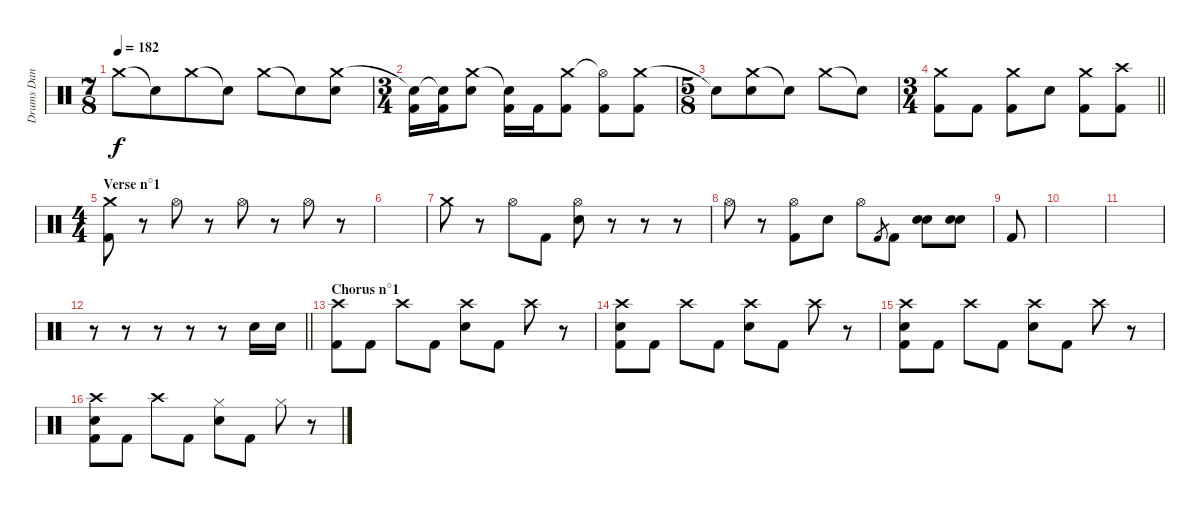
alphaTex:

\track ("Drums Dan Searle" "Drums Dan ") {instrument percussion}
\staff {score}
\articulation defaults
\ts (7 8)
\tempo 182
\clef neutral
\ks c "Crash medium (hit)".8{dy f} "Snare (hit)"{t}.8 "Crash medium (hit)".8 "Snare (hit)"{t}.8 "Crash medium (hit)".8 "Snare (hit)"{t}.8
("Crash medium (hit)" "Electric Snare (hit)").8 |
\ts (3 4)
("Snare (hit)"{t} "Kick (hit) 2").16 ("Snare (hit)"{t} "Kick (hit) 2").16 ("Crash medium (hit)" "Electric Snare (hit)").8 ("Snare (hit)"{t} "Kick (hit) 2").16 "Kick (hit) 2".16 ("Crash medium (hit)" "Kick (hit) 2").8 ("Hi-Hat (open)"{t} "Kick (hit) 2").8 ("Crash medium (hit)" "Kick (hit) 2").8 |
\ts (5 8)
"Snare (hit)"{t}.8 ("Crash medium (hit)" "Electric Snare (hit)").8 "Snare (hit)"{t}.8 "Crash medium (hit)".8 "Snare (hit)"{t}.8 |
\ts (3 4)
\barLineRight lightlight
("Crash medium (hit)" "Kick (hit) 2").8 "Kick (hit) 2".8 ("Crash medium (hit)" "Kick (hit) 2").8 "Electric Snare (hit)".8 ("Crash medium (hit)" "Kick (hit) 2").8 ("Crash high (hit)" "Kick (hit) 2").8 |
\ts (4 4)
\section ("" "Verse n°1")
("Crash medium (hit)" "Kick (hit) 2").8 r.8 "Hi-Hat (open)".8 r.8 "Hi-Hat (open)".8 r.8 "Hi-Hat (open)".8 r.8 |
|
"Crash medium (hit)".8 r.8 "Hi-Hat (open)".8 "Kick (hit) 2".8 ("Hi-Hat (open)" "Electric Snare (hit)").8 r.8 r.8 r.8 |
"Hi-Hat (open)".8 r.8 ("Hi-Hat (open)" "Kick (hit) 2").8 "Electric Snare (hit)".8 "Hi-Hat (open)".8 "Kick (hit) 2".8{gr} "Kick (hit) 2".8 ("Electric Snare (hit)" "Electric Snare (hit)").8 ("Electric Snare (hit)" "Electric Snare (hit)").8 |
"Kick (hit) 2".8 |
|
|
\barLineRight lightlight
r.8 r.8 r.8 r.8 r.8 "Electric Snare (hit)".16 "Electric Snare (hit)".16 |
\section ("" "Chorus n°1")
("Crash high (hit)" "Kick (hit) 2").8 "Kick (hit) 2".8 "Crash high (hit)".8 "Kick (hit) 2".8 ("Crash high (hit)" "Electric Snare (hit)").8 "Kick (hit) 2".8 "Crash high (hit)".8 r.8 |
("Crash high (hit)" "Electric Snare (hit)" "Kick (hit) 2").8 "Kick (hit) 2".8 "Crash high (hit)".8 "Kick (hit) 2".8 ("Crash high (hit)" "Electric Snare (hit)").8 "Kick (hit) 2".8 "Crash high (hit)".8 r.8 |
("Crash high (hit)" "Electric Snare (hit)" "Kick (hit) 2").8 "Kick (hit) 2".8 "Crash high (hit)".8 "Kick (hit) 2".8 ("Crash high (hit)" "Electric Snare (hit)").8 "Kick (hit) 2".8 "Crash high (hit)".8 r.8 |
("Crash high (hit)" "Electric Snare (hit)" "Kick (hit) 2").8 "Kick (hit) 2".8 "Crash high (hit)".8 "Kick (hit) 2".8 ("Hi-Hat (closed)" "Electric Snare (hit)").8 "Kick (hit) 2".8 "Hi-Hat (closed)".8 r.8
